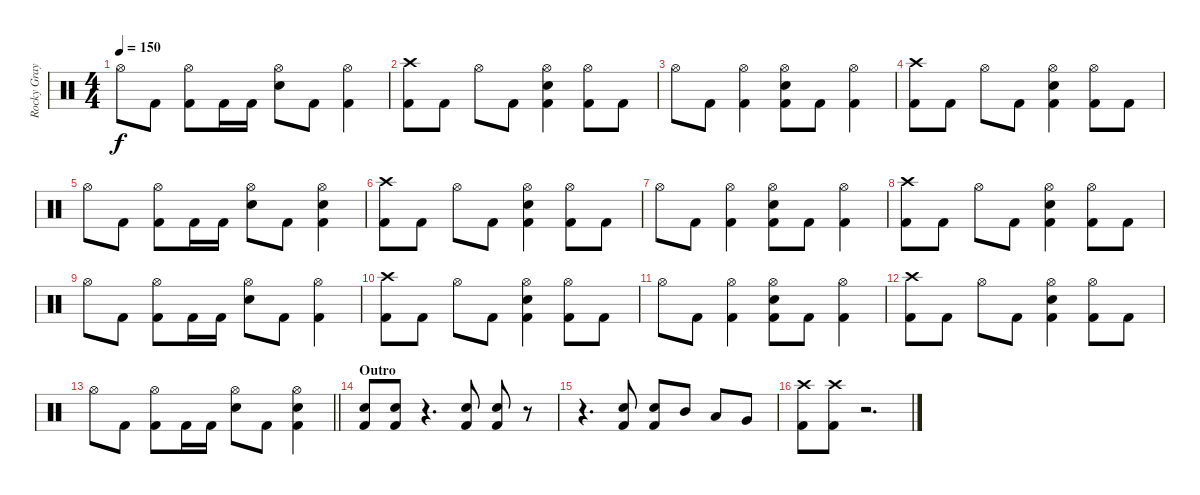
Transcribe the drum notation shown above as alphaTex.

\track ("Rocky Gray" "Rocky Gray") {instrument percussion}
\staff {score}
\articulation defaults
\ts (4 4)
\tempo 150
\clef neutral
\ks c "Hi-Hat (open)".8{dy f} "Kick (hit) 2".8
("Hi-Hat (open)" "Kick (hit) 2").8 "Kick (hit) 2".16 "Kick (hit) 2".16 ("Hi-Hat (open)" "Snare (hit) 2").8 "Kick (hit) 2".8 ("Hi-Hat (open)" "Kick (hit) 2").4 |
("Crash high (hit)" "Kick (hit) 2").8 "Kick (hit) 2".8 "Hi-Hat (open)".8 "Kick (hit) 2".8 ("Hi-Hat (open)" "Snare (hit) 2" "Kick (hit) 2").4 ("Hi-Hat (open)" "Kick (hit) 2").8 "Kick (hit) 2".8 |
"Hi-Hat (open)".8 "Kick (hit) 2".8 ("Hi-Hat (open)" "Kick (hit) 2").4 ("Hi-Hat (open)" "Snare (hit) 2" "Kick (hit) 2").8 "Kick (hit) 2".8 ("Hi-Hat (open)" "Kick (hit) 2").4 |
("Crash high (hit)" "Kick (hit) 2").8 "Kick (hit) 2".8 "Hi-Hat (open)".8 "Kick (hit) 2".8 ("Hi-Hat (open)" "Snare (hit) 2" "Kick (hit) 2").4 ("Hi-Hat (open)" "Kick (hit) 2").8 "Kick (hit) 2".8 |
"Hi-Hat (open)".8 "Kick (hit) 2".8 ("Hi-Hat (open)" "Kick (hit) 2").8 "Kick (hit) 2".16 "Kick (hit) 2".16 ("Hi-Hat (open)" "Snare (hit) 2").8 "Kick (hit) 2".8 ("Hi-Hat (open)" "Snare (hit) 2" "Kick (hit) 2").4 |
("Crash high (hit)" "Kick (hit) 2").8 "Kick (hit) 2".8 "Hi-Hat (open)".8 "Kick (hit) 2".8 ("Hi-Hat (open)" "Snare (hit) 2" "Kick (hit) 2").4 ("Hi-Hat (open)" "Kick (hit) 2").8 "Kick (hit) 2".8 |
"Hi-Hat (open)".8 "Kick (hit) 2".8 ("Hi-Hat (open)" "Kick (hit) 2").4 ("Hi-Hat (open)" "Snare (hit) 2" "Kick (hit) 2").8 "Kick (hit) 2".8 ("Hi-Hat (open)" "Kick (hit) 2").4 |
("Crash high (hit)" "Kick (hit) 2").8 "Kick (hit) 2".8 "Hi-Hat (open)".8 "Kick (hit) 2".8 ("Hi-Hat (open)" "Snare (hit) 2" "Kick (hit) 2").4 ("Hi-Hat (open)" "Kick (hit) 2").8 "Kick (hit) 2".8 |
"Hi-Hat (open)".8 "Kick (hit) 2".8 ("Hi-Hat (open)" "Kick (hit) 2").8 "Kick (hit) 2".16 "Kick (hit) 2".16 ("Hi-Hat (open)" "Snare (hit) 2").8 "Kick (hit) 2".8 ("Hi-Hat (open)" "Kick (hit) 2").4 |
("Crash high (hit)" "Kick (hit) 2").8 "Kick (hit) 2".8 "Hi-Hat (open)".8 "Kick (hit) 2".8 ("Hi-Hat (open)" "Snare (hit) 2" "Kick (hit) 2").4 ("Hi-Hat (open)" "Kick (hit) 2").8 "Kick (hit) 2".8 |
"Hi-Hat (open)".8 "Kick (hit) 2".8 ("Hi-Hat (open)" "Kick (hit) 2").4 ("Hi-Hat (open)" "Snare (hit) 2" "Kick (hit) 2").8 "Kick (hit) 2".8 ("Hi-Hat (open)" "Kick (hit) 2").4 |
("Crash high (hit)" "Kick (hit) 2").8 "Kick (hit) 2".8 "Hi-Hat (open)".8 "Kick (hit) 2".8 ("Hi-Hat (open)" "Snare (hit) 2" "Kick (hit) 2").4 ("Hi-Hat (open)" "Kick (hit) 2").8 "Kick (hit) 2".8 |
\barLineRight lightlight "Hi-Hat (open)".8 "Kick (hit) 2".8
("Hi-Hat (open)" "Kick (hit) 2").8 "Kick (hit) 2".16 "Kick (hit) 2".16 ("Hi-Hat (open)" "Snare (hit) 2").8 "Kick (hit) 2".8 ("Hi-Hat (open)" "Snare (hit) 2" "Kick (hit) 2").4 |
\section ("" "Outro")
("Snare (hit) 2" "Kick (hit) 2").8 ("Snare (hit) 2" "Kick (hit) 2").8 r.4{d} ("Snare (hit) 2" "Kick (hit) 2").8 ("Snare (hit) 2" "Kick (hit) 2").8 r.8 |
r.4{d} ("Snare (hit) 2" "Kick (hit) 2").8 ("Snare (hit) 2" "Kick (hit) 2").8 "Mid Tom (hit)".8 "Low Tom (hit)".8 "Very Low Tom (hit)".8 |
("Crash high (hit)" "Kick (hit) 2").8 ("Crash high (hit)" "Kick (hit) 2").8 r.2{d}
